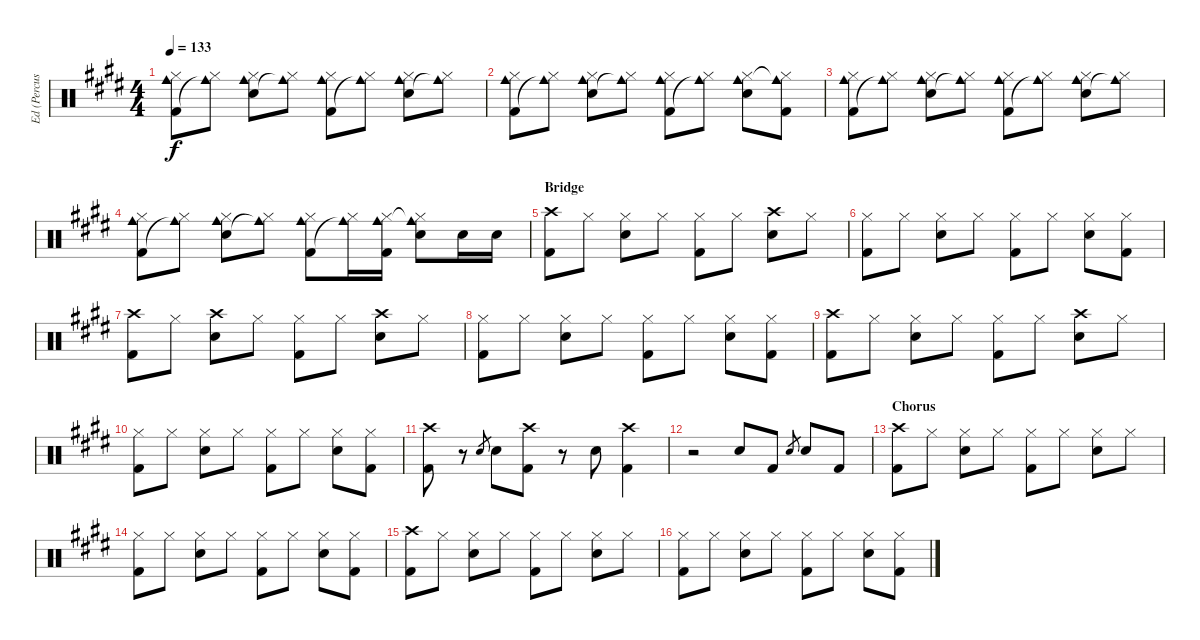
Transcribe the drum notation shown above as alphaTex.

\track ("Ed (Percussion/Drums)" "Ed (Percus") {instrument percussion}
\staff {score}
\articulation defaults
\ts (4 4)
\tempo 133
\clef neutral
\ks e
("Hi-Hat (closed)" "Kick (hit) 2" "Cowbell medium (hit)").8{dy f} ("Hi-Hat (closed)" "Cowbell medium (hit)"{t}).8 ("Hi-Hat (closed)" "Snare (hit) 2" "Cowbell medium (hit)").8 ("Hi-Hat (closed)" "Cowbell medium (hit)"{t}).8 ("Hi-Hat (closed)" "Kick (hit) 2" "Cowbell medium (hit)").8 ("Hi-Hat (closed)" "Cowbell medium (hit)"{t}).8 ("Hi-Hat (closed)" "Snare (hit) 2" "Cowbell medium (hit)").8 ("Hi-Hat (closed)" "Cowbell medium (hit)"{t}).8 |
("Hi-Hat (closed)" "Kick (hit) 2" "Cowbell medium (hit)").8 ("Hi-Hat (closed)" "Cowbell medium (hit)"{t}).8 ("Hi-Hat (closed)" "Snare (hit) 2" "Cowbell medium (hit)").8 ("Hi-Hat (closed)" "Cowbell medium (hit)"{t}).8 ("Hi-Hat (closed)" "Kick (hit) 2" "Cowbell medium (hit)").8 ("Hi-Hat (closed)" "Cowbell medium (hit)"{t}).8 ("Hi-Hat (closed)" "Snare (hit) 2" "Cowbell medium (hit)").8 ("Hi-Hat (closed)" "Kick (hit) 2" "Cowbell medium (hit)"{t}).8 |
("Hi-Hat (closed)" "Kick (hit) 2" "Cowbell medium (hit)").8 ("Hi-Hat (closed)" "Cowbell medium (hit)"{t}).8 ("Hi-Hat (closed)" "Snare (hit) 2" "Cowbell medium (hit)").8 ("Hi-Hat (closed)" "Cowbell medium (hit)"{t}).8 ("Hi-Hat (closed)" "Kick (hit) 2" "Cowbell medium (hit)").8 ("Hi-Hat (closed)" "Cowbell medium (hit)"{t}).8 ("Hi-Hat (closed)" "Snare (hit) 2" "Cowbell medium (hit)").8 ("Hi-Hat (closed)" "Cowbell medium (hit)"{t}).8 |
("Hi-Hat (closed)" "Kick (hit) 2" "Cowbell medium (hit)").8 ("Hi-Hat (closed)" "Cowbell medium (hit)"{t}).8 ("Hi-Hat (closed)" "Snare (hit) 2" "Cowbell medium (hit)").8 ("Hi-Hat (closed)" "Cowbell medium (hit)"{t}).8 ("Hi-Hat (closed)" "Kick (hit) 2" "Cowbell medium (hit)").8 ("Hi-Hat (closed)" "Cowbell medium (hit)"{t}).16 ("Hi-Hat (closed)" "Kick (hit) 2" "Cowbell medium (hit)").16 ("Hi-Hat (closed)" "Snare (hit) 2" "Cowbell medium (hit)"{t}).8 "Snare (hit) 2".16 "Snare (hit) 2".16 |
\section ("" "Bridge")
("Crash high (hit)" "Kick (hit) 2").8 "Hi-Hat (closed)".8 ("Hi-Hat (closed)" "Snare (hit) 2").8 "Hi-Hat (closed)".8 ("Hi-Hat (closed)" "Kick (hit) 2").8 "Hi-Hat (closed)".8 ("Crash high (hit)" "Snare (hit) 2").8 "Hi-Hat (closed)".8 |
("Hi-Hat (closed)" "Kick (hit) 2").8 "Hi-Hat (closed)".8 ("Hi-Hat (closed)" "Snare (hit) 2").8 "Hi-Hat (closed)".8 ("Hi-Hat (closed)" "Kick (hit) 2").8 "Hi-Hat (closed)".8 ("Hi-Hat (closed)" "Snare (hit) 2").8 ("Hi-Hat (closed)" "Kick (hit) 2").8 |
("Crash high (hit)" "Kick (hit) 2").8 "Hi-Hat (closed)".8 ("Crash high (hit)" "Snare (hit) 2").8 "Hi-Hat (closed)".8 ("Hi-Hat (closed)" "Kick (hit) 2").8 "Hi-Hat (closed)".8 ("Crash high (hit)" "Snare (hit) 2").8 "Hi-Hat (closed)".8 |
("Hi-Hat (closed)" "Kick (hit) 2").8 "Hi-Hat (closed)".8 ("Hi-Hat (closed)" "Snare (hit) 2").8 "Hi-Hat (closed)".8 ("Hi-Hat (closed)" "Kick (hit) 2").8 "Hi-Hat (closed)".8 ("Hi-Hat (closed)" "Snare (hit) 2").8 ("Hi-Hat (closed)" "Kick (hit) 2").8 |
("Crash high (hit)" "Kick (hit) 2").8 "Hi-Hat (closed)".8 ("Hi-Hat (closed)" "Snare (hit) 2").8 "Hi-Hat (closed)".8 ("Hi-Hat (closed)" "Kick (hit) 2").8 "Hi-Hat (closed)".8 ("Crash high (hit)" "Snare (hit) 2").8 "Hi-Hat (closed)".8 |
("Hi-Hat (closed)" "Kick (hit) 2").8 "Hi-Hat (closed)".8 ("Hi-Hat (closed)" "Snare (hit) 2").8 "Hi-Hat (closed)".8 ("Hi-Hat (closed)" "Kick (hit) 2").8 "Hi-Hat (closed)".8 ("Hi-Hat (closed)" "Snare (hit) 2").8 ("Hi-Hat (closed)" "Kick (hit) 2").8 |
("Crash high (hit)" "Kick (hit) 2").8 r.8 "Snare (hit) 2".8{gr} "Snare (hit) 2".8 ("Crash high (hit)" "Kick (hit) 2").8 r.8 "Snare (hit) 2".8 ("Crash high (hit)" "Kick (hit) 2").4 |
r.2 "Snare (hit) 2".8 "Kick (hit) 2".8 "Snare (hit) 2".8{gr} "Snare (hit) 2".8 "Kick (hit) 2".8 |
\section ("" "Chorus")
("Crash high (hit)" "Kick (hit) 2").8 "Hi-Hat (closed)".8 ("Hi-Hat (closed)" "Snare (hit) 2").8 "Hi-Hat (closed)".8 ("Hi-Hat (closed)" "Kick (hit) 2").8 "Hi-Hat (closed)".8 ("Hi-Hat (closed)" "Snare (hit) 2").8 "Hi-Hat (closed)".8 |
("Hi-Hat (closed)" "Kick (hit) 2").8 "Hi-Hat (closed)".8 ("Hi-Hat (closed)" "Snare (hit) 2").8 "Hi-Hat (closed)".8 ("Hi-Hat (closed)" "Kick (hit) 2").8 "Hi-Hat (closed)".8 ("Hi-Hat (closed)" "Snare (hit) 2").8 ("Hi-Hat (closed)" "Kick (hit) 2").8 |
("Crash high (hit)" "Kick (hit) 2").8 "Hi-Hat (closed)".8 ("Hi-Hat (closed)" "Snare (hit) 2").8 "Hi-Hat (closed)".8 ("Hi-Hat (closed)" "Kick (hit) 2").8 "Hi-Hat (closed)".8 ("Hi-Hat (closed)" "Snare (hit) 2").8 "Hi-Hat (closed)".8 |
("Hi-Hat (closed)" "Kick (hit) 2").8 "Hi-Hat (closed)".8 ("Hi-Hat (closed)" "Snare (hit) 2").8 "Hi-Hat (closed)".8 ("Hi-Hat (closed)" "Kick (hit) 2").8 "Hi-Hat (closed)".8 ("Hi-Hat (closed)" "Snare (hit) 2").8 ("Hi-Hat (closed)" "Kick (hit) 2").8
